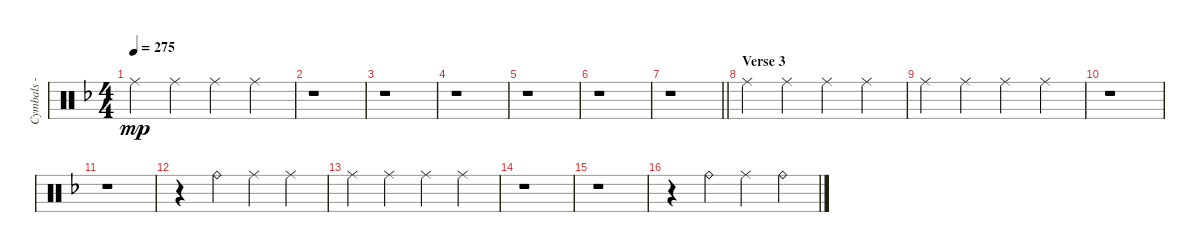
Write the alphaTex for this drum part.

\track ("Cymbals - ride" "Cymbals - ") {instrument percussion}
\staff {score}
\articulation defaults
\ts (4 4)
\tempo 275
\clef neutral
\ks dminor "Ride (middle)".4{dy mp} "Ride (middle)".4 "Ride (middle)".4 "Ride (middle)".4
|
r.1 |
r.1 |
r.1 |
r.1 |
r.1 |
\barLineRight lightlight
r.1 |
\section ("" "Verse 3")
"Ride (middle)".4 "Ride (middle)".4 "Ride (middle)".4 "Ride (middle)".4 |
"Ride (middle)".4 "Ride (middle)".4 "Ride (middle)".4 "Ride (middle)".4 |
r.1 |
r.1 |
r.4 "Ride (bell)".4 "Ride (middle)".4 "Ride (middle)".4 |
"Ride (middle)".4 "Ride (middle)".4 "Ride (middle)".4 "Ride (middle)".4 |
r.1 |
r.1 |
r.4 "Ride (bell)".4 "Ride (middle)".4 "Ride (bell)".4
